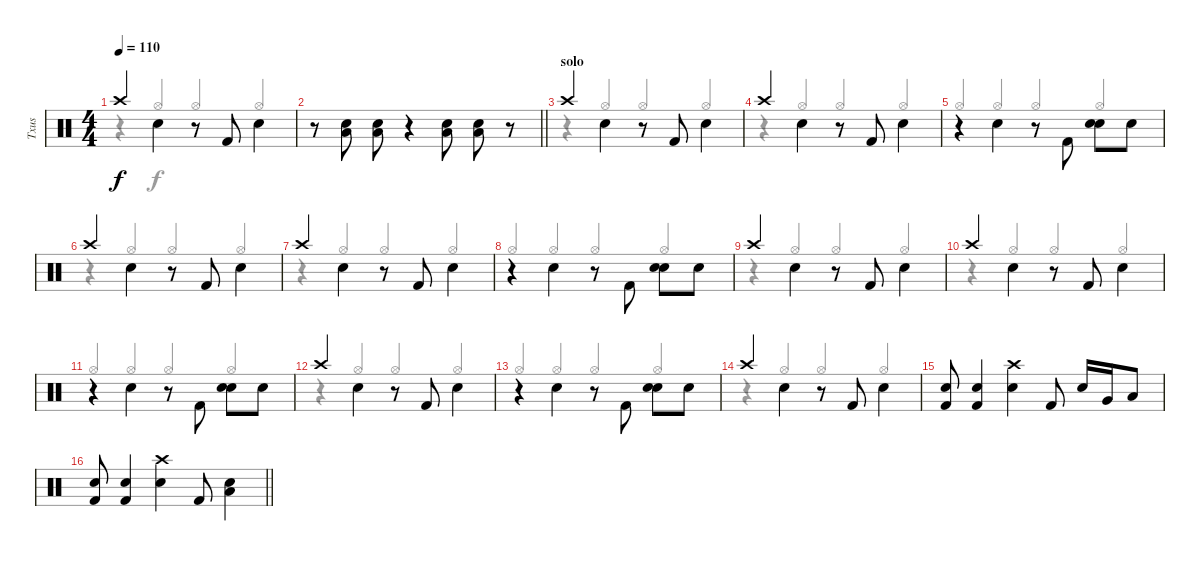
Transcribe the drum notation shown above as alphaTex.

\track ("Txus" "Txus") {instrument percussion}
\staff {score}
\articulation defaults
\voice
\ts (4 4)
\tempo 110
\clef neutral
\ks c "Crash high (hit)".4{dy f} "Snare (hit) 2".4{beam Down}
r.8 "Kick (hit) 2".8 "Snare (hit) 2".4{beam Down} |
\barLineRight lightlight
r.8 ("Snare (hit) 2" "Low Floor Tom (hit)").8 ("Snare (hit) 2" "Low Floor Tom (hit)").8 r.4 ("Snare (hit) 2" "Low Floor Tom (hit)").8 ("Snare (hit) 2" "Low Floor Tom (hit)").8 r.8 |
\section ("" "solo")
"Crash high (hit)".4 "Snare (hit) 2".4{beam Down} r.8 "Kick (hit) 2".8 "Snare (hit) 2".4{beam Down} |
"Crash high (hit)".4 "Snare (hit) 2".4{beam Down} r.8 "Kick (hit) 2".8 "Snare (hit) 2".4{beam Down} |
r.4 "Snare (hit) 2".4{beam Down} r.8 "Kick (hit) 2".8{beam Down} ("Snare (hit) 2" "Snare (hit) 2").8{beam Down} "Snare (hit) 2".8 |
"Crash high (hit)".4 "Snare (hit) 2".4{beam Down} r.8 "Kick (hit) 2".8 "Snare (hit) 2".4{beam Down} |
"Crash high (hit)".4 "Snare (hit) 2".4{beam Down} r.8 "Kick (hit) 2".8 "Snare (hit) 2".4{beam Down} |
r.4 "Snare (hit) 2".4{beam Down} r.8 "Kick (hit) 2".8{beam Down} ("Snare (hit) 2" "Snare (hit) 2").8{beam Down} "Snare (hit) 2".8 |
"Crash high (hit)".4 "Snare (hit) 2".4{beam Down} r.8 "Kick (hit) 2".8 "Snare (hit) 2".4{beam Down} |
"Crash high (hit)".4 "Snare (hit) 2".4{beam Down} r.8 "Kick (hit) 2".8 "Snare (hit) 2".4{beam Down} |
r.4 "Snare (hit) 2".4{beam Down} r.8 "Kick (hit) 2".8{beam Down} ("Snare (hit) 2" "Snare (hit) 2").8{beam Down} "Snare (hit) 2".8 |
"Crash high (hit)".4 "Snare (hit) 2".4{beam Down} r.8 "Kick (hit) 2".8 "Snare (hit) 2".4{beam Down} |
r.4 "Snare (hit) 2".4{beam Down} r.8 "Kick (hit) 2".8{beam Down} ("Snare (hit) 2" "Snare (hit) 2").8{beam Down} "Snare (hit) 2".8 |
"Crash high (hit)".4 "Snare (hit) 2".4{beam Down} r.8 "Kick (hit) 2".8 "Snare (hit) 2".4{beam Down} |
("Snare (hit) 2" "Kick (hit) 2").8 ("Kick (hit) 2" "Snare (hit) 2").4 ("Crash high (hit)" "Snare (hit) 2").4 "Kick (hit) 2".8 "Snare (hit) 2".16 "Very Low Tom (hit)".16 "Low Tom (hit)".8 |
\barLineRight lightlight
("Snare (hit) 2" "Kick (hit) 2").8 ("Kick (hit) 2" "Snare (hit) 2").4 ("Crash high (hit)" "Snare (hit) 2").4 "Kick (hit) 2".8 ("Snare (hit) 2" "Low Floor Tom (hit)").4
\voice
\clef neutral
\ottava regular
\simile none
\ks c
r.4{dy f beam Up} "Hi-Hat (open)".4{beam Up} "Hi-Hat (open)".4{beam Up} "Hi-Hat (open)".4{beam Up} |
\barLineRight lightlight
|
r.4{beam Up} "Hi-Hat (open)".4{beam Up} "Hi-Hat (open)".4{beam Up} "Hi-Hat (open)".4{beam Up} |
r.4{beam Up} "Hi-Hat (open)".4{beam Up} "Hi-Hat (open)".4{beam Up} "Hi-Hat (open)".4{beam Up} |
"Hi-Hat (open)".4{beam Up} "Hi-Hat (open)".4{beam Up} "Hi-Hat (open)".4{beam Up} "Hi-Hat (open)".4{beam Up} |
r.4{beam Up} "Hi-Hat (open)".4{beam Up} "Hi-Hat (open)".4{beam Up} "Hi-Hat (open)".4{beam Up} |
r.4{beam Up} "Hi-Hat (open)".4{beam Up} "Hi-Hat (open)".4{beam Up} "Hi-Hat (open)".4{beam Up} |
"Hi-Hat (open)".4{beam Up} "Hi-Hat (open)".4{beam Up} "Hi-Hat (open)".4{beam Up} "Hi-Hat (open)".4{beam Up} |
r.4{beam Up} "Hi-Hat (open)".4{beam Up} "Hi-Hat (open)".4{beam Up} "Hi-Hat (open)".4{beam Up} |
r.4{beam Up} "Hi-Hat (open)".4{beam Up} "Hi-Hat (open)".4{beam Up} "Hi-Hat (open)".4{beam Up} |
"Hi-Hat (open)".4{beam Up} "Hi-Hat (open)".4{beam Up} "Hi-Hat (open)".4{beam Up} "Hi-Hat (open)".4{beam Up} |
r.4{beam Up} "Hi-Hat (open)".4{beam Up} "Hi-Hat (open)".4{beam Up} "Hi-Hat (open)".4{beam Up} |
"Hi-Hat (open)".4{beam Up} "Hi-Hat (open)".4{beam Up} "Hi-Hat (open)".4{beam Up} "Hi-Hat (open)".4{beam Up} |
r.4{beam Up} "Hi-Hat (open)".4{beam Up} "Hi-Hat (open)".4{beam Up} "Hi-Hat (open)".4{beam Up} |
|
\barLineRight lightlight
